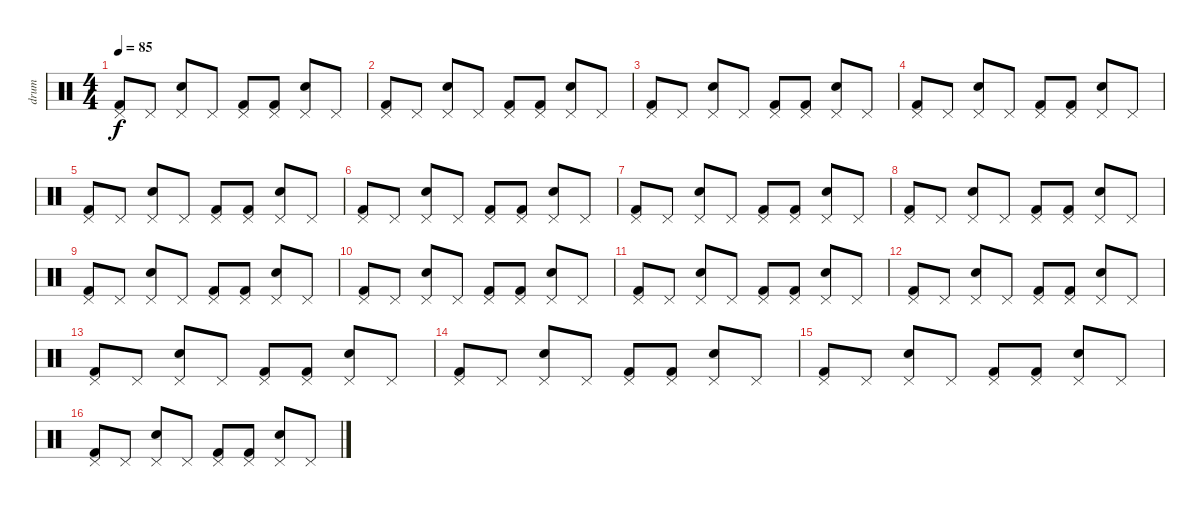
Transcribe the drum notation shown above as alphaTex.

\track ("drum" "drum") {instrument percussion}
\staff {score}
\articulation defaults
\ts (4 4)
\tempo 85
\clef neutral
\ks c
("Pedal Hi-Hat (hit)" "Kick (hit) 2").8{dy f} "Pedal Hi-Hat (hit)".8 ("Pedal Hi-Hat (hit)" "Snare (hit) 2").8 "Pedal Hi-Hat (hit)".8 ("Pedal Hi-Hat (hit)" "Kick (hit) 2").8 ("Pedal Hi-Hat (hit)" "Kick (hit) 2").8 ("Pedal Hi-Hat (hit)" "Snare (hit) 2").8 "Pedal Hi-Hat (hit)".8 |
("Pedal Hi-Hat (hit)" "Kick (hit) 2").8 "Pedal Hi-Hat (hit)".8 ("Pedal Hi-Hat (hit)" "Snare (hit) 2").8 "Pedal Hi-Hat (hit)".8 ("Pedal Hi-Hat (hit)" "Kick (hit) 2").8 ("Pedal Hi-Hat (hit)" "Kick (hit) 2").8 ("Pedal Hi-Hat (hit)" "Snare (hit) 2").8 "Pedal Hi-Hat (hit)".8 |
("Pedal Hi-Hat (hit)" "Kick (hit) 2").8 "Pedal Hi-Hat (hit)".8 ("Pedal Hi-Hat (hit)" "Snare (hit) 2").8 "Pedal Hi-Hat (hit)".8 ("Pedal Hi-Hat (hit)" "Kick (hit) 2").8 ("Pedal Hi-Hat (hit)" "Kick (hit) 2").8 ("Pedal Hi-Hat (hit)" "Snare (hit) 2").8 "Pedal Hi-Hat (hit)".8 |
("Pedal Hi-Hat (hit)" "Kick (hit) 2").8 "Pedal Hi-Hat (hit)".8 ("Pedal Hi-Hat (hit)" "Snare (hit) 2").8 "Pedal Hi-Hat (hit)".8 ("Pedal Hi-Hat (hit)" "Kick (hit) 2").8 ("Pedal Hi-Hat (hit)" "Kick (hit) 2").8 ("Pedal Hi-Hat (hit)" "Snare (hit) 2").8 "Pedal Hi-Hat (hit)".8 |
("Pedal Hi-Hat (hit)" "Kick (hit) 2").8 "Pedal Hi-Hat (hit)".8 ("Pedal Hi-Hat (hit)" "Snare (hit) 2").8 "Pedal Hi-Hat (hit)".8 ("Pedal Hi-Hat (hit)" "Kick (hit) 2").8 ("Pedal Hi-Hat (hit)" "Kick (hit) 2").8 ("Pedal Hi-Hat (hit)" "Snare (hit) 2").8 "Pedal Hi-Hat (hit)".8 |
("Pedal Hi-Hat (hit)" "Kick (hit) 2").8 "Pedal Hi-Hat (hit)".8 ("Pedal Hi-Hat (hit)" "Snare (hit) 2").8 "Pedal Hi-Hat (hit)".8 ("Pedal Hi-Hat (hit)" "Kick (hit) 2").8 ("Pedal Hi-Hat (hit)" "Kick (hit) 2").8 ("Pedal Hi-Hat (hit)" "Snare (hit) 2").8 "Pedal Hi-Hat (hit)".8 |
("Pedal Hi-Hat (hit)" "Kick (hit) 2").8 "Pedal Hi-Hat (hit)".8 ("Pedal Hi-Hat (hit)" "Snare (hit) 2").8 "Pedal Hi-Hat (hit)".8 ("Pedal Hi-Hat (hit)" "Kick (hit) 2").8 ("Pedal Hi-Hat (hit)" "Kick (hit) 2").8 ("Pedal Hi-Hat (hit)" "Snare (hit) 2").8 "Pedal Hi-Hat (hit)".8 |
("Pedal Hi-Hat (hit)" "Kick (hit) 2").8 "Pedal Hi-Hat (hit)".8 ("Pedal Hi-Hat (hit)" "Snare (hit) 2").8 "Pedal Hi-Hat (hit)".8 ("Pedal Hi-Hat (hit)" "Kick (hit) 2").8 ("Pedal Hi-Hat (hit)" "Kick (hit) 2").8 ("Pedal Hi-Hat (hit)" "Snare (hit) 2").8 "Pedal Hi-Hat (hit)".8 |
("Pedal Hi-Hat (hit)" "Kick (hit) 2").8 "Pedal Hi-Hat (hit)".8 ("Pedal Hi-Hat (hit)" "Snare (hit) 2").8 "Pedal Hi-Hat (hit)".8 ("Pedal Hi-Hat (hit)" "Kick (hit) 2").8 ("Pedal Hi-Hat (hit)" "Kick (hit) 2").8 ("Pedal Hi-Hat (hit)" "Snare (hit) 2").8 "Pedal Hi-Hat (hit)".8 |
("Pedal Hi-Hat (hit)" "Kick (hit) 2").8 "Pedal Hi-Hat (hit)".8 ("Pedal Hi-Hat (hit)" "Snare (hit) 2").8 "Pedal Hi-Hat (hit)".8 ("Pedal Hi-Hat (hit)" "Kick (hit) 2").8 ("Pedal Hi-Hat (hit)" "Kick (hit) 2").8 ("Pedal Hi-Hat (hit)" "Snare (hit) 2").8 "Pedal Hi-Hat (hit)".8 |
("Pedal Hi-Hat (hit)" "Kick (hit) 2").8 "Pedal Hi-Hat (hit)".8 ("Pedal Hi-Hat (hit)" "Snare (hit) 2").8 "Pedal Hi-Hat (hit)".8 ("Pedal Hi-Hat (hit)" "Kick (hit) 2").8 ("Pedal Hi-Hat (hit)" "Kick (hit) 2").8 ("Pedal Hi-Hat (hit)" "Snare (hit) 2").8 "Pedal Hi-Hat (hit)".8 |
("Pedal Hi-Hat (hit)" "Kick (hit) 2").8 "Pedal Hi-Hat (hit)".8 ("Pedal Hi-Hat (hit)" "Snare (hit) 2").8 "Pedal Hi-Hat (hit)".8 ("Pedal Hi-Hat (hit)" "Kick (hit) 2").8 ("Pedal Hi-Hat (hit)" "Kick (hit) 2").8 ("Pedal Hi-Hat (hit)" "Snare (hit) 2").8 "Pedal Hi-Hat (hit)".8 |
("Pedal Hi-Hat (hit)" "Kick (hit) 2").8 "Pedal Hi-Hat (hit)".8 ("Pedal Hi-Hat (hit)" "Snare (hit) 2").8 "Pedal Hi-Hat (hit)".8 ("Pedal Hi-Hat (hit)" "Kick (hit) 2").8 ("Pedal Hi-Hat (hit)" "Kick (hit) 2").8 ("Pedal Hi-Hat (hit)" "Snare (hit) 2").8 "Pedal Hi-Hat (hit)".8 |
("Pedal Hi-Hat (hit)" "Kick (hit) 2").8 "Pedal Hi-Hat (hit)".8 ("Pedal Hi-Hat (hit)" "Snare (hit) 2").8 "Pedal Hi-Hat (hit)".8 ("Pedal Hi-Hat (hit)" "Kick (hit) 2").8 ("Pedal Hi-Hat (hit)" "Kick (hit) 2").8 ("Pedal Hi-Hat (hit)" "Snare (hit) 2").8 "Pedal Hi-Hat (hit)".8 |
("Pedal Hi-Hat (hit)" "Kick (hit) 2").8 "Pedal Hi-Hat (hit)".8 ("Pedal Hi-Hat (hit)" "Snare (hit) 2").8 "Pedal Hi-Hat (hit)".8 ("Pedal Hi-Hat (hit)" "Kick (hit) 2").8 ("Pedal Hi-Hat (hit)" "Kick (hit) 2").8 ("Pedal Hi-Hat (hit)" "Snare (hit) 2").8 "Pedal Hi-Hat (hit)".8 |
("Pedal Hi-Hat (hit)" "Kick (hit) 2").8 "Pedal Hi-Hat (hit)".8 ("Pedal Hi-Hat (hit)" "Snare (hit) 2").8 "Pedal Hi-Hat (hit)".8 ("Pedal Hi-Hat (hit)" "Kick (hit) 2").8 ("Pedal Hi-Hat (hit)" "Kick (hit) 2").8 ("Pedal Hi-Hat (hit)" "Snare (hit) 2").8 "Pedal Hi-Hat (hit)".8
